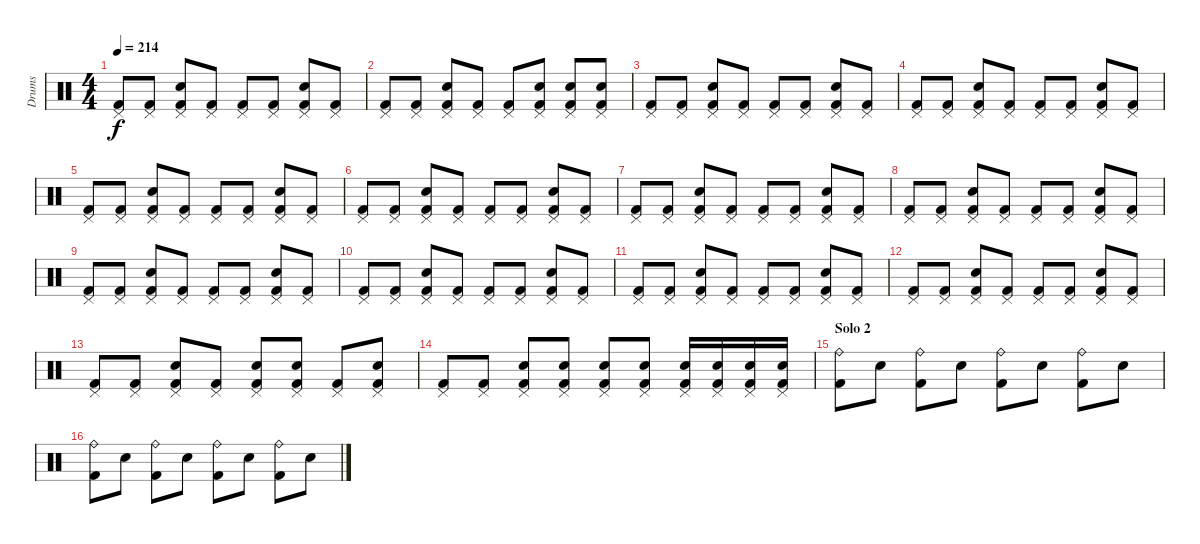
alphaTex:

\track ("Drums" "Drums") {instrument percussion}
\staff {score}
\articulation defaults
\ts (4 4)
\tempo 214
\clef neutral
\ks c
("Pedal Hi-Hat (hit)" "Kick (hit) 2").8{dy f} ("Pedal Hi-Hat (hit)" "Kick (hit) 2").8 ("Pedal Hi-Hat (hit)" "Electric Snare (hit)" "Kick (hit) 2").8 ("Pedal Hi-Hat (hit)" "Kick (hit) 2").8 ("Pedal Hi-Hat (hit)" "Kick (hit) 2").8 ("Pedal Hi-Hat (hit)" "Kick (hit) 2").8 ("Pedal Hi-Hat (hit)" "Electric Snare (hit)" "Kick (hit) 2").8 ("Pedal Hi-Hat (hit)" "Kick (hit) 2").8 |
("Pedal Hi-Hat (hit)" "Kick (hit) 2").8 ("Pedal Hi-Hat (hit)" "Kick (hit) 2").8 ("Pedal Hi-Hat (hit)" "Electric Snare (hit)" "Kick (hit) 2").8 ("Pedal Hi-Hat (hit)" "Kick (hit) 2").8 ("Pedal Hi-Hat (hit)" "Kick (hit) 2").8 ("Pedal Hi-Hat (hit)" "Electric Snare (hit)" "Kick (hit) 2").8 ("Pedal Hi-Hat (hit)" "Electric Snare (hit)" "Kick (hit) 2").8 ("Pedal Hi-Hat (hit)" "Electric Snare (hit)" "Kick (hit) 2").8 |
("Pedal Hi-Hat (hit)" "Kick (hit) 2").8 ("Pedal Hi-Hat (hit)" "Kick (hit) 2").8 ("Pedal Hi-Hat (hit)" "Electric Snare (hit)" "Kick (hit) 2").8 ("Pedal Hi-Hat (hit)" "Kick (hit) 2").8 ("Pedal Hi-Hat (hit)" "Kick (hit) 2").8 ("Pedal Hi-Hat (hit)" "Kick (hit) 2").8 ("Pedal Hi-Hat (hit)" "Electric Snare (hit)" "Kick (hit) 2").8 ("Pedal Hi-Hat (hit)" "Kick (hit) 2").8 |
("Pedal Hi-Hat (hit)" "Kick (hit) 2").8 ("Pedal Hi-Hat (hit)" "Kick (hit) 2").8 ("Pedal Hi-Hat (hit)" "Electric Snare (hit)" "Kick (hit) 2").8 ("Pedal Hi-Hat (hit)" "Kick (hit) 2").8 ("Pedal Hi-Hat (hit)" "Kick (hit) 2").8 ("Pedal Hi-Hat (hit)" "Kick (hit) 2").8 ("Pedal Hi-Hat (hit)" "Electric Snare (hit)" "Kick (hit) 2").8 ("Pedal Hi-Hat (hit)" "Kick (hit) 2").8 |
("Pedal Hi-Hat (hit)" "Kick (hit) 2").8 ("Pedal Hi-Hat (hit)" "Kick (hit) 2").8 ("Pedal Hi-Hat (hit)" "Electric Snare (hit)" "Kick (hit) 2").8 ("Pedal Hi-Hat (hit)" "Kick (hit) 2").8 ("Pedal Hi-Hat (hit)" "Kick (hit) 2").8 ("Pedal Hi-Hat (hit)" "Kick (hit) 2").8 ("Pedal Hi-Hat (hit)" "Electric Snare (hit)" "Kick (hit) 2").8 ("Pedal Hi-Hat (hit)" "Kick (hit) 2").8 |
("Pedal Hi-Hat (hit)" "Kick (hit) 2").8 ("Pedal Hi-Hat (hit)" "Kick (hit) 2").8 ("Pedal Hi-Hat (hit)" "Electric Snare (hit)" "Kick (hit) 2").8 ("Pedal Hi-Hat (hit)" "Kick (hit) 2").8 ("Pedal Hi-Hat (hit)" "Kick (hit) 2").8 ("Pedal Hi-Hat (hit)" "Kick (hit) 2").8 ("Pedal Hi-Hat (hit)" "Electric Snare (hit)" "Kick (hit) 2").8 ("Pedal Hi-Hat (hit)" "Kick (hit) 2").8 |
("Pedal Hi-Hat (hit)" "Kick (hit) 2").8 ("Pedal Hi-Hat (hit)" "Kick (hit) 2").8 ("Pedal Hi-Hat (hit)" "Electric Snare (hit)" "Kick (hit) 2").8 ("Pedal Hi-Hat (hit)" "Kick (hit) 2").8 ("Pedal Hi-Hat (hit)" "Kick (hit) 2").8 ("Pedal Hi-Hat (hit)" "Kick (hit) 2").8 ("Pedal Hi-Hat (hit)" "Electric Snare (hit)" "Kick (hit) 2").8 ("Pedal Hi-Hat (hit)" "Kick (hit) 2").8 |
("Pedal Hi-Hat (hit)" "Kick (hit) 2").8 ("Pedal Hi-Hat (hit)" "Kick (hit) 2").8 ("Pedal Hi-Hat (hit)" "Electric Snare (hit)" "Kick (hit) 2").8 ("Pedal Hi-Hat (hit)" "Kick (hit) 2").8 ("Pedal Hi-Hat (hit)" "Kick (hit) 2").8 ("Pedal Hi-Hat (hit)" "Kick (hit) 2").8 ("Pedal Hi-Hat (hit)" "Electric Snare (hit)" "Kick (hit) 2").8 ("Pedal Hi-Hat (hit)" "Kick (hit) 2").8 |
("Pedal Hi-Hat (hit)" "Kick (hit) 2").8 ("Pedal Hi-Hat (hit)" "Kick (hit) 2").8 ("Pedal Hi-Hat (hit)" "Electric Snare (hit)" "Kick (hit) 2").8 ("Pedal Hi-Hat (hit)" "Kick (hit) 2").8 ("Pedal Hi-Hat (hit)" "Kick (hit) 2").8 ("Pedal Hi-Hat (hit)" "Kick (hit) 2").8 ("Pedal Hi-Hat (hit)" "Electric Snare (hit)" "Kick (hit) 2").8 ("Pedal Hi-Hat (hit)" "Kick (hit) 2").8 |
("Pedal Hi-Hat (hit)" "Kick (hit) 2").8 ("Pedal Hi-Hat (hit)" "Kick (hit) 2").8 ("Pedal Hi-Hat (hit)" "Electric Snare (hit)" "Kick (hit) 2").8 ("Pedal Hi-Hat (hit)" "Kick (hit) 2").8 ("Pedal Hi-Hat (hit)" "Kick (hit) 2").8 ("Pedal Hi-Hat (hit)" "Kick (hit) 2").8 ("Pedal Hi-Hat (hit)" "Electric Snare (hit)" "Kick (hit) 2").8 ("Pedal Hi-Hat (hit)" "Kick (hit) 2").8 |
("Pedal Hi-Hat (hit)" "Kick (hit) 2").8 ("Pedal Hi-Hat (hit)" "Kick (hit) 2").8 ("Pedal Hi-Hat (hit)" "Electric Snare (hit)" "Kick (hit) 2").8 ("Pedal Hi-Hat (hit)" "Kick (hit) 2").8 ("Pedal Hi-Hat (hit)" "Kick (hit) 2").8 ("Pedal Hi-Hat (hit)" "Kick (hit) 2").8 ("Pedal Hi-Hat (hit)" "Electric Snare (hit)" "Kick (hit) 2").8 ("Pedal Hi-Hat (hit)" "Kick (hit) 2").8 |
("Pedal Hi-Hat (hit)" "Kick (hit) 2").8 ("Pedal Hi-Hat (hit)" "Kick (hit) 2").8 ("Pedal Hi-Hat (hit)" "Electric Snare (hit)" "Kick (hit) 2").8 ("Pedal Hi-Hat (hit)" "Kick (hit) 2").8 ("Pedal Hi-Hat (hit)" "Kick (hit) 2").8 ("Pedal Hi-Hat (hit)" "Kick (hit) 2").8 ("Pedal Hi-Hat (hit)" "Electric Snare (hit)" "Kick (hit) 2").8 ("Pedal Hi-Hat (hit)" "Kick (hit) 2").8 |
("Pedal Hi-Hat (hit)" "Kick (hit) 2").8 ("Pedal Hi-Hat (hit)" "Kick (hit) 2").8 ("Pedal Hi-Hat (hit)" "Electric Snare (hit)" "Kick (hit) 2").8 ("Pedal Hi-Hat (hit)" "Kick (hit) 2").8 ("Pedal Hi-Hat (hit)" "Electric Snare (hit)" "Kick (hit) 2").8 ("Pedal Hi-Hat (hit)" "Electric Snare (hit)" "Kick (hit) 2").8 ("Pedal Hi-Hat (hit)" "Kick (hit) 2").8 ("Pedal Hi-Hat (hit)" "Electric Snare (hit)" "Kick (hit) 2").8 |
("Pedal Hi-Hat (hit)" "Kick (hit) 2").8 ("Pedal Hi-Hat (hit)" "Kick (hit) 2").8 ("Pedal Hi-Hat (hit)" "Electric Snare (hit)" "Kick (hit) 2").8 ("Pedal Hi-Hat (hit)" "Electric Snare (hit)" "Kick (hit) 2").8 ("Pedal Hi-Hat (hit)" "Electric Snare (hit)" "Kick (hit) 2").8 ("Pedal Hi-Hat (hit)" "Electric Snare (hit)" "Kick (hit) 2").8 ("Pedal Hi-Hat (hit)" "Electric Snare (hit)" "Kick (hit) 2").16 ("Pedal Hi-Hat (hit)" "Electric Snare (hit)" "Kick (hit) 2").16 ("Pedal Hi-Hat (hit)" "Electric Snare (hit)" "Kick (hit) 2").16 ("Pedal Hi-Hat (hit)" "Electric Snare (hit)" "Kick (hit) 2").16 |
\section ("" "Solo 2")
("Ride (bell)" "Kick (hit) 2").8 "Electric Snare (hit)".8 ("Ride (bell)" "Kick (hit) 2").8 "Electric Snare (hit)".8 ("Ride (bell)" "Kick (hit) 2").8 "Electric Snare (hit)".8 ("Ride (bell)" "Kick (hit) 2").8 "Electric Snare (hit)".8 |
("Ride (bell)" "Kick (hit) 2").8 "Electric Snare (hit)".8 ("Ride (bell)" "Kick (hit) 2").8 "Electric Snare (hit)".8 ("Ride (bell)" "Kick (hit) 2").8 "Electric Snare (hit)".8 ("Ride (bell)" "Kick (hit) 2").8 "Electric Snare (hit)".8
